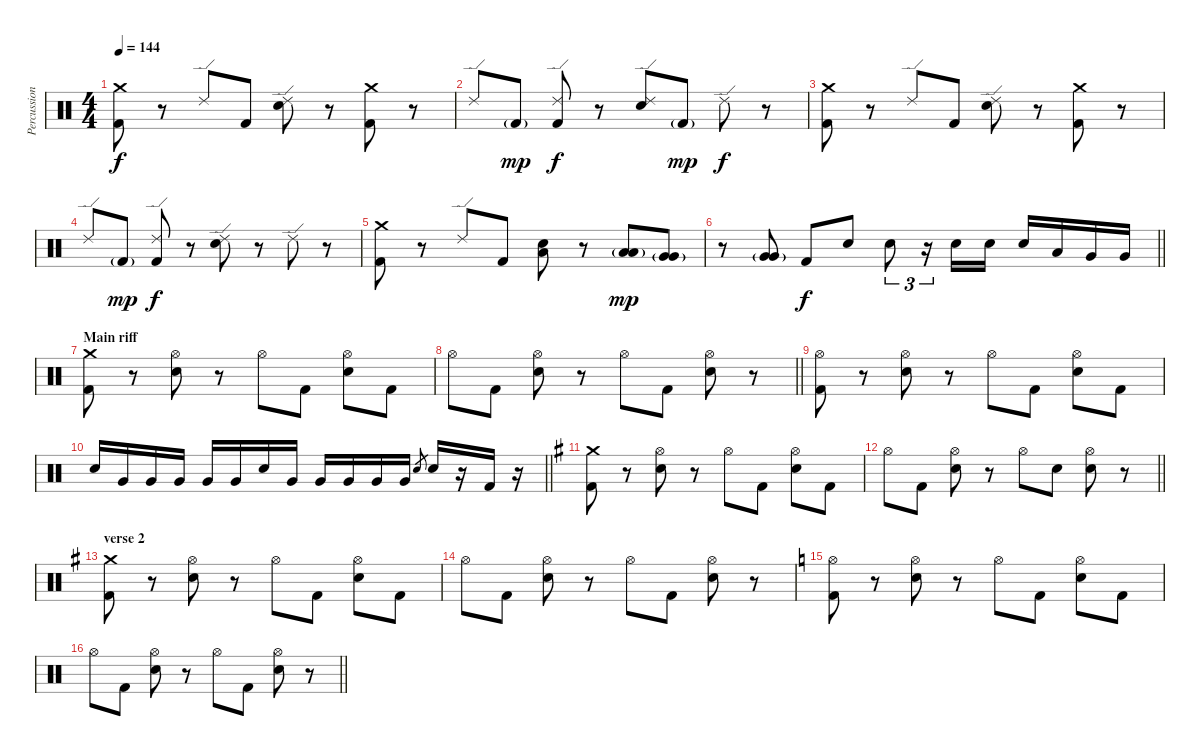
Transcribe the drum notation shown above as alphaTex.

\track ("Percussion" "Percussion") {instrument percussion}
\staff {score}
\articulation defaults
\ts (4 4)
\tempo 144
\clef neutral
\ks c
("Crash medium (hit)" "Kick (hit) 2").8{dy f} r.8 "Ride (edge) 2".8 "Kick (hit) 2".8 ("Ride (edge) 2" "Electric Snare (hit)").8 r.8 ("Crash medium (hit)" "Kick (hit) 2").8 r.8 |
"Ride (edge) 2".8 "Kick (hit) 2"{g}.8{dy mp} ("Ride (edge) 2" "Kick (hit) 2").8{dy f} r.8 ("Ride (edge) 2" "Electric Snare (hit)").8 "Kick (hit) 2"{g}.8{dy mp} "Ride (edge) 2".8{dy f} r.8 |
("Crash medium (hit)" "Kick (hit) 2").8 r.8 "Ride (edge) 2".8 "Kick (hit) 2".8 ("Ride (edge) 2" "Electric Snare (hit)").8 r.8 ("Crash medium (hit)" "Kick (hit) 2").8 r.8 |
"Ride (edge) 2".8 "Kick (hit) 2"{g}.8{dy mp} ("Ride (edge) 2" "Kick (hit) 2").8{dy f} r.8 ("Ride (edge) 2" "Electric Snare (hit)").8 r.8 "Ride (edge) 2".8 r.8 |
("Crash medium (hit)" "Kick (hit) 2").8 r.8 "Ride (edge) 2".8 "Kick (hit) 2".8 ("Low Floor Tom (hit)" "Electric Snare (hit)").8 r.8 ("Low Tom (hit)"{g} "Low Tom (hit)").8{dy mp} ("Very Low Tom (hit)"{g} "Very Low Tom (hit)").8 |
\barLineRight lightlight
r.8 ("Very Low Tom (hit)"{g} "Very Low Tom (hit)").8 "Kick (hit) 2".8{dy f} "Electric Snare (hit)".8 "Electric Snare (hit)".8{tu (3 2)} r.16{tu (3 2)} "Electric Snare (hit)".16 "Electric Snare (hit)".16 "Electric Snare (hit)".16 "Low Tom (hit)".16 "Very Low Tom (hit)".16 "Very Low Tom (hit)".16 |
\section ("" "Main riff")
("Crash medium (hit)" "Kick (hit) 2").8 r.8 ("Hi-Hat (open)" "Electric Snare (hit)").8 r.8 "Hi-Hat (open)".8 "Kick (hit) 2".8 ("Hi-Hat (open)" "Electric Snare (hit)").8 "Kick (hit) 2".8 |
\barLineRight lightlight "Hi-Hat (open)".8 "Kick (hit) 2".8
("Hi-Hat (open)" "Electric Snare (hit)").8 r.8 "Hi-Hat (open)".8 "Kick (hit) 2".8 ("Hi-Hat (open)" "Electric Snare (hit)").8 r.8 |
("Hi-Hat (open)" "Kick (hit) 2").8 r.8 ("Hi-Hat (open)" "Electric Snare (hit)").8 r.8 "Hi-Hat (open)".8 "Kick (hit) 2".8 ("Hi-Hat (open)" "Electric Snare (hit)").8 "Kick (hit) 2".8 |
\barLineRight lightlight "Electric Snare (hit)".16 "Very Low Tom (hit)".16 "Very Low Tom (hit)".16 "Very Low Tom (hit)".16 "Very Low Tom (hit)".16 "Very Low Tom (hit)".16 "Electric Snare (hit)".16 "Very Low Tom (hit)".16 "Very Low Tom (hit)".16 "Very Low Tom (hit)".16 "Very Low Tom (hit)".16 "Very Low Tom (hit)".16 "Electric Snare (hit)".8{gr} "Electric Snare (hit)".16
r.16 "Kick (hit) 2".16 r.16 |
\ks g
("Crash medium (hit)" "Kick (hit) 2").8 r.8 ("Hi-Hat (open)" "Electric Snare (hit)").8 r.8 "Hi-Hat (open)".8 "Kick (hit) 2".8 ("Hi-Hat (open)" "Electric Snare (hit)").8 "Kick (hit) 2".8 |
\barLineRight lightlight "Hi-Hat (open)".8 "Kick (hit) 2".8
("Hi-Hat (open)" "Electric Snare (hit)").8 r.8 "Hi-Hat (open)".8 "Electric Snare (hit)".8 ("Hi-Hat (open)" "Electric Snare (hit)").8 r.8 |
\section ("" "verse 2")
("Crash medium (hit)" "Kick (hit) 2").8 r.8 ("Hi-Hat (open)" "Electric Snare (hit)").8 r.8 "Hi-Hat (open)".8 "Kick (hit) 2".8 ("Hi-Hat (open)" "Electric Snare (hit)").8 "Kick (hit) 2".8 |
"Hi-Hat (open)".8 "Kick (hit) 2".8 ("Hi-Hat (open)" "Electric Snare (hit)").8 r.8 "Hi-Hat (open)".8 "Kick (hit) 2".8 ("Hi-Hat (open)" "Electric Snare (hit)").8 r.8 |
\ks c
("Hi-Hat (open)" "Kick (hit) 2").8 r.8 ("Hi-Hat (open)" "Electric Snare (hit)").8 r.8 "Hi-Hat (open)".8 "Kick (hit) 2".8 ("Hi-Hat (open)" "Electric Snare (hit)").8 "Kick (hit) 2".8 |
\barLineRight lightlight "Hi-Hat (open)".8 "Kick (hit) 2".8
("Hi-Hat (open)" "Electric Snare (hit)").8 r.8 "Hi-Hat (open)".8 "Kick (hit) 2".8 ("Hi-Hat (open)" "Electric Snare (hit)").8 r.8
